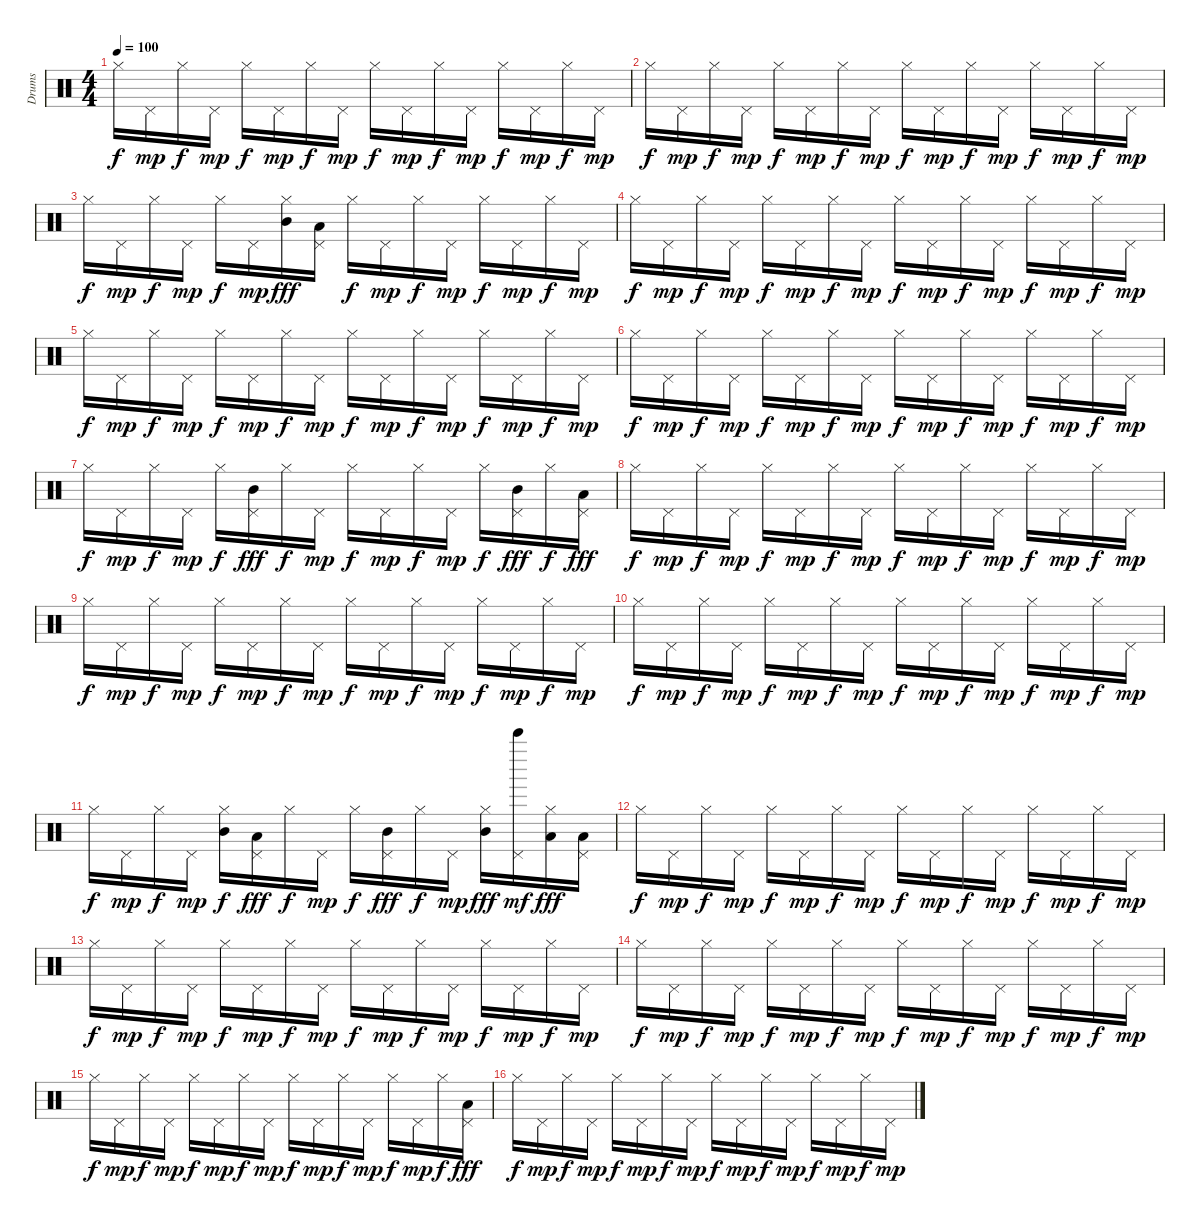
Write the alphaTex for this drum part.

\track ("Drums" "Drums") {instrument percussion}
\staff {score}
\articulation defaults
\ts (4 4)
\tempo 100
\clef neutral
\ks c "Hi-Hat (closed)".16{dy f} "Pedal Hi-Hat (hit)".16{dy mp} "Hi-Hat (closed)".16{dy f} "Pedal Hi-Hat (hit)".16{dy mp} "Hi-Hat (closed)".16{dy f} "Pedal Hi-Hat (hit)".16{dy mp} "Hi-Hat (closed)".16{dy f} "Pedal Hi-Hat (hit)".16{dy mp} "Hi-Hat (closed)".16{dy f} "Pedal Hi-Hat (hit)".16{dy mp} "Hi-Hat (closed)".16{dy f} "Pedal Hi-Hat (hit)".16{dy mp} "Hi-Hat (closed)".16{dy f} "Pedal Hi-Hat (hit)".16{dy mp} "Hi-Hat (closed)".16{dy f} "Pedal Hi-Hat (hit)".16{dy mp}
|
"Hi-Hat (closed)".16{dy f} "Pedal Hi-Hat (hit)".16{dy mp} "Hi-Hat (closed)".16{dy f} "Pedal Hi-Hat (hit)".16{dy mp} "Hi-Hat (closed)".16{dy f} "Pedal Hi-Hat (hit)".16{dy mp} "Hi-Hat (closed)".16{dy f} "Pedal Hi-Hat (hit)".16{dy mp} "Hi-Hat (closed)".16{dy f} "Pedal Hi-Hat (hit)".16{dy mp} "Hi-Hat (closed)".16{dy f} "Pedal Hi-Hat (hit)".16{dy mp} "Hi-Hat (closed)".16{dy f} "Pedal Hi-Hat (hit)".16{dy mp} "Hi-Hat (closed)".16{dy f} "Pedal Hi-Hat (hit)".16{dy mp} |
"Hi-Hat (closed)".16{dy f} "Pedal Hi-Hat (hit)".16{dy mp} "Hi-Hat (closed)".16{dy f} "Pedal Hi-Hat (hit)".16{dy mp} "Hi-Hat (closed)".16{dy f} "Pedal Hi-Hat (hit)".16{dy mp} ("Hi-Hat (closed)" "Mid Tom (hit)").16{dy fff} ("Pedal Hi-Hat (hit)" "Low Floor Tom (hit)").16 "Hi-Hat (closed)".16{dy f} "Pedal Hi-Hat (hit)".16{dy mp} "Hi-Hat (closed)".16{dy f} "Pedal Hi-Hat (hit)".16{dy mp} "Hi-Hat (closed)".16{dy f} "Pedal Hi-Hat (hit)".16{dy mp} "Hi-Hat (closed)".16{dy f} "Pedal Hi-Hat (hit)".16{dy mp} |
"Hi-Hat (closed)".16{dy f} "Pedal Hi-Hat (hit)".16{dy mp} "Hi-Hat (closed)".16{dy f} "Pedal Hi-Hat (hit)".16{dy mp} "Hi-Hat (closed)".16{dy f} "Pedal Hi-Hat (hit)".16{dy mp} "Hi-Hat (closed)".16{dy f} "Pedal Hi-Hat (hit)".16{dy mp} "Hi-Hat (closed)".16{dy f} "Pedal Hi-Hat (hit)".16{dy mp} "Hi-Hat (closed)".16{dy f} "Pedal Hi-Hat (hit)".16{dy mp} "Hi-Hat (closed)".16{dy f} "Pedal Hi-Hat (hit)".16{dy mp} "Hi-Hat (closed)".16{dy f} "Pedal Hi-Hat (hit)".16{dy mp} |
"Hi-Hat (closed)".16{dy f} "Pedal Hi-Hat (hit)".16{dy mp} "Hi-Hat (closed)".16{dy f} "Pedal Hi-Hat (hit)".16{dy mp} "Hi-Hat (closed)".16{dy f} "Pedal Hi-Hat (hit)".16{dy mp} "Hi-Hat (closed)".16{dy f} "Pedal Hi-Hat (hit)".16{dy mp} "Hi-Hat (closed)".16{dy f} "Pedal Hi-Hat (hit)".16{dy mp} "Hi-Hat (closed)".16{dy f} "Pedal Hi-Hat (hit)".16{dy mp} "Hi-Hat (closed)".16{dy f} "Pedal Hi-Hat (hit)".16{dy mp} "Hi-Hat (closed)".16{dy f} "Pedal Hi-Hat (hit)".16{dy mp} |
"Hi-Hat (closed)".16{dy f} "Pedal Hi-Hat (hit)".16{dy mp} "Hi-Hat (closed)".16{dy f} "Pedal Hi-Hat (hit)".16{dy mp} "Hi-Hat (closed)".16{dy f} "Pedal Hi-Hat (hit)".16{dy mp} "Hi-Hat (closed)".16{dy f} "Pedal Hi-Hat (hit)".16{dy mp} "Hi-Hat (closed)".16{dy f} "Pedal Hi-Hat (hit)".16{dy mp} "Hi-Hat (closed)".16{dy f} "Pedal Hi-Hat (hit)".16{dy mp} "Hi-Hat (closed)".16{dy f} "Pedal Hi-Hat (hit)".16{dy mp} "Hi-Hat (closed)".16{dy f} "Pedal Hi-Hat (hit)".16{dy mp} |
"Hi-Hat (closed)".16{dy f} "Pedal Hi-Hat (hit)".16{dy mp} "Hi-Hat (closed)".16{dy f} "Pedal Hi-Hat (hit)".16{dy mp} "Hi-Hat (closed)".16{dy f} ("Pedal Hi-Hat (hit)" "Mid Tom (hit)").16{dy fff} "Hi-Hat (closed)".16{dy f} "Pedal Hi-Hat (hit)".16{dy mp} "Hi-Hat (closed)".16{dy f} "Pedal Hi-Hat (hit)".16{dy mp} "Hi-Hat (closed)".16{dy f} "Pedal Hi-Hat (hit)".16{dy mp} "Hi-Hat (closed)".16{dy f} ("Pedal Hi-Hat (hit)" "Mid Tom (hit)").16{dy fff} "Hi-Hat (closed)".16{dy f} ("Pedal Hi-Hat (hit)" "Low Tom (hit)").16{dy fff} |
"Hi-Hat (closed)".16{dy f} "Pedal Hi-Hat (hit)".16{dy mp} "Hi-Hat (closed)".16{dy f} "Pedal Hi-Hat (hit)".16{dy mp} "Hi-Hat (closed)".16{dy f} "Pedal Hi-Hat (hit)".16{dy mp} "Hi-Hat (closed)".16{dy f} "Pedal Hi-Hat (hit)".16{dy mp} "Hi-Hat (closed)".16{dy f} "Pedal Hi-Hat (hit)".16{dy mp} "Hi-Hat (closed)".16{dy f} "Pedal Hi-Hat (hit)".16{dy mp} "Hi-Hat (closed)".16{dy f} "Pedal Hi-Hat (hit)".16{dy mp} "Hi-Hat (closed)".16{dy f} "Pedal Hi-Hat (hit)".16{dy mp} |
"Hi-Hat (closed)".16{dy f} "Pedal Hi-Hat (hit)".16{dy mp} "Hi-Hat (closed)".16{dy f} "Pedal Hi-Hat (hit)".16{dy mp} "Hi-Hat (closed)".16{dy f} "Pedal Hi-Hat (hit)".16{dy mp} "Hi-Hat (closed)".16{dy f} "Pedal Hi-Hat (hit)".16{dy mp} "Hi-Hat (closed)".16{dy f} "Pedal Hi-Hat (hit)".16{dy mp} "Hi-Hat (closed)".16{dy f} "Pedal Hi-Hat (hit)".16{dy mp} "Hi-Hat (closed)".16{dy f} "Pedal Hi-Hat (hit)".16{dy mp} "Hi-Hat (closed)".16{dy f} "Pedal Hi-Hat (hit)".16{dy mp} |
"Hi-Hat (closed)".16{dy f} "Pedal Hi-Hat (hit)".16{dy mp} "Hi-Hat (closed)".16{dy f} "Pedal Hi-Hat (hit)".16{dy mp} "Hi-Hat (closed)".16{dy f} "Pedal Hi-Hat (hit)".16{dy mp} "Hi-Hat (closed)".16{dy f} "Pedal Hi-Hat (hit)".16{dy mp} "Hi-Hat (closed)".16{dy f} "Pedal Hi-Hat (hit)".16{dy mp} "Hi-Hat (closed)".16{dy f} "Pedal Hi-Hat (hit)".16{dy mp} "Hi-Hat (closed)".16{dy f} "Pedal Hi-Hat (hit)".16{dy mp} "Hi-Hat (closed)".16{dy f} "Pedal Hi-Hat (hit)".16{dy mp} |
"Hi-Hat (closed)".16{dy f} "Pedal Hi-Hat (hit)".16{dy mp} "Hi-Hat (closed)".16{dy f} "Pedal Hi-Hat (hit)".16{dy mp} ("Hi-Hat (closed)" "Mid Tom (hit)").16{dy f} ("Pedal Hi-Hat (hit)" "Low Floor Tom (hit)").16{dy fff} "Hi-Hat (closed)".16{dy f} "Pedal Hi-Hat (hit)".16{dy mp} "Hi-Hat (closed)".16{dy f} ("Pedal Hi-Hat (hit)" "Mid Tom (hit)").16{dy fff} "Hi-Hat (closed)".16{dy f} "Pedal Hi-Hat (hit)".16{dy mp} ("Hi-Hat (closed)" "Mid Tom (hit)").16{dy fff} ("Pedal Hi-Hat (hit)" "Bell Tree (hit)").16{dy mf} ("Hi-Hat (closed)" "Low Tom (hit)").16{dy fff} ("Pedal Hi-Hat (hit)" "Low Floor Tom (hit)").16 |
"Hi-Hat (closed)".16{dy f} "Pedal Hi-Hat (hit)".16{dy mp} "Hi-Hat (closed)".16{dy f} "Pedal Hi-Hat (hit)".16{dy mp} "Hi-Hat (closed)".16{dy f} "Pedal Hi-Hat (hit)".16{dy mp} "Hi-Hat (closed)".16{dy f} "Pedal Hi-Hat (hit)".16{dy mp} "Hi-Hat (closed)".16{dy f} "Pedal Hi-Hat (hit)".16{dy mp} "Hi-Hat (closed)".16{dy f} "Pedal Hi-Hat (hit)".16{dy mp} "Hi-Hat (closed)".16{dy f} "Pedal Hi-Hat (hit)".16{dy mp} "Hi-Hat (closed)".16{dy f} "Pedal Hi-Hat (hit)".16{dy mp} |
"Hi-Hat (closed)".16{dy f} "Pedal Hi-Hat (hit)".16{dy mp} "Hi-Hat (closed)".16{dy f} "Pedal Hi-Hat (hit)".16{dy mp} "Hi-Hat (closed)".16{dy f} "Pedal Hi-Hat (hit)".16{dy mp} "Hi-Hat (closed)".16{dy f} "Pedal Hi-Hat (hit)".16{dy mp} "Hi-Hat (closed)".16{dy f} "Pedal Hi-Hat (hit)".16{dy mp} "Hi-Hat (closed)".16{dy f} "Pedal Hi-Hat (hit)".16{dy mp} "Hi-Hat (closed)".16{dy f} "Pedal Hi-Hat (hit)".16{dy mp} "Hi-Hat (closed)".16{dy f} "Pedal Hi-Hat (hit)".16{dy mp} |
"Hi-Hat (closed)".16{dy f} "Pedal Hi-Hat (hit)".16{dy mp} "Hi-Hat (closed)".16{dy f} "Pedal Hi-Hat (hit)".16{dy mp} "Hi-Hat (closed)".16{dy f} "Pedal Hi-Hat (hit)".16{dy mp} "Hi-Hat (closed)".16{dy f} "Pedal Hi-Hat (hit)".16{dy mp} "Hi-Hat (closed)".16{dy f} "Pedal Hi-Hat (hit)".16{dy mp} "Hi-Hat (closed)".16{dy f} "Pedal Hi-Hat (hit)".16{dy mp} "Hi-Hat (closed)".16{dy f} "Pedal Hi-Hat (hit)".16{dy mp} "Hi-Hat (closed)".16{dy f} "Pedal Hi-Hat (hit)".16{dy mp} |
"Hi-Hat (closed)".16{dy f} "Pedal Hi-Hat (hit)".16{dy mp} "Hi-Hat (closed)".16{dy f} "Pedal Hi-Hat (hit)".16{dy mp} "Hi-Hat (closed)".16{dy f} "Pedal Hi-Hat (hit)".16{dy mp} "Hi-Hat (closed)".16{dy f} "Pedal Hi-Hat (hit)".16{dy mp} "Hi-Hat (closed)".16{dy f} "Pedal Hi-Hat (hit)".16{dy mp} "Hi-Hat (closed)".16{dy f} "Pedal Hi-Hat (hit)".16{dy mp} "Hi-Hat (closed)".16{dy f} "Pedal Hi-Hat (hit)".16{dy mp} "Hi-Hat (closed)".16{dy f} ("Pedal Hi-Hat (hit)" "Low Tom (hit)").16{dy fff} |
"Hi-Hat (closed)".16{dy f} "Pedal Hi-Hat (hit)".16{dy mp} "Hi-Hat (closed)".16{dy f} "Pedal Hi-Hat (hit)".16{dy mp} "Hi-Hat (closed)".16{dy f} "Pedal Hi-Hat (hit)".16{dy mp} "Hi-Hat (closed)".16{dy f} "Pedal Hi-Hat (hit)".16{dy mp} "Hi-Hat (closed)".16{dy f} "Pedal Hi-Hat (hit)".16{dy mp} "Hi-Hat (closed)".16{dy f} "Pedal Hi-Hat (hit)".16{dy mp} "Hi-Hat (closed)".16{dy f} "Pedal Hi-Hat (hit)".16{dy mp} "Hi-Hat (closed)".16{dy f} "Pedal Hi-Hat (hit)".16{dy mp}
